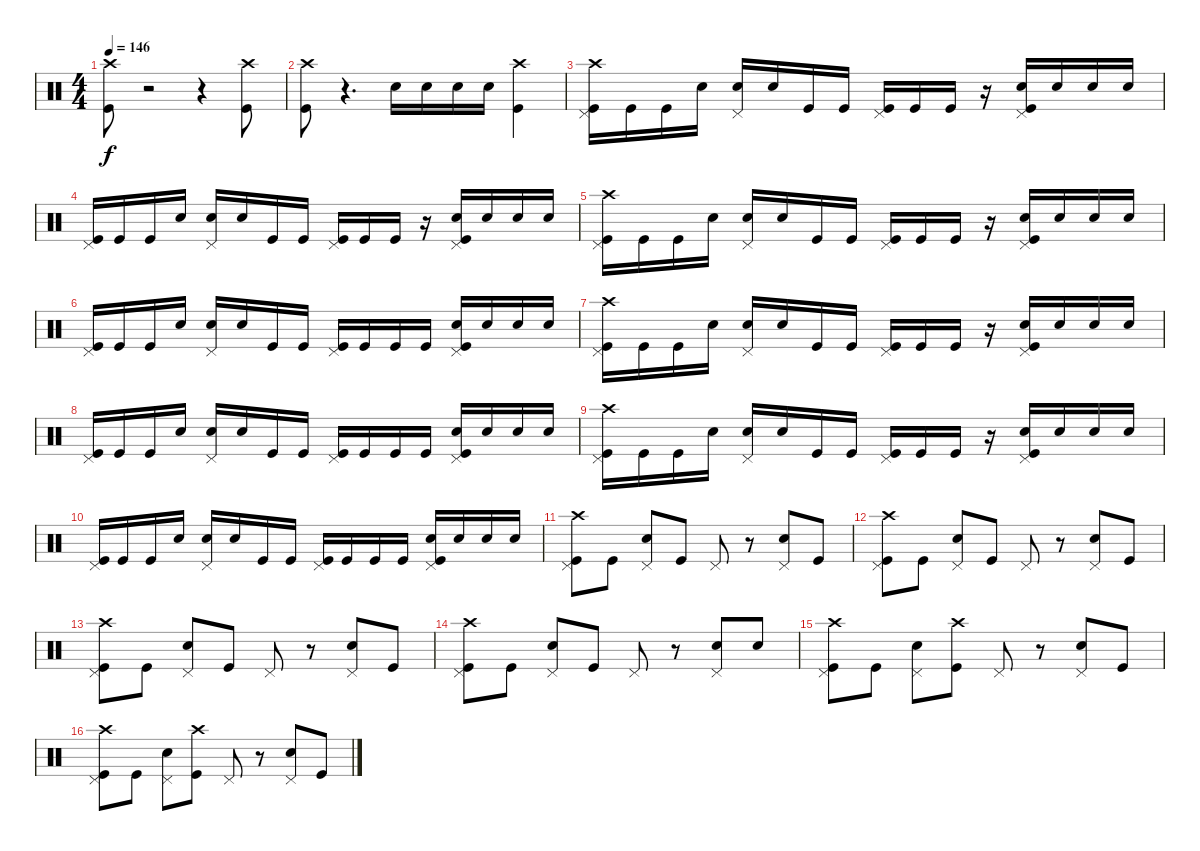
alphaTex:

\track "" {instrument percussion}
\staff {score}
\articulation defaults
\ts (4 4)
\tempo 146
\clef neutral
\ks c
("Crash high (hit)" "Kick (hit)").8{dy f} r.2 r.4 ("Crash high (hit)" "Kick (hit)").8 |
("Crash high (hit)" "Kick (hit)").8 r.4{d} "Snare (hit) 2".16 "Snare (hit) 2".16 "Snare (hit) 2".16 "Snare (hit) 2".16 ("Crash high (hit)" "Kick (hit)").4 |
("Crash high (hit)" "Pedal Hi-Hat (hit)" "Kick (hit)").16 "Kick (hit)".16 "Kick (hit)".16 "Snare (hit)"{x}.16 ("Snare (hit) 2" "Pedal Hi-Hat (hit)").16 "Snare (hit)"{x}.16 "Kick (hit)".16 "Kick (hit)".16 ("Pedal Hi-Hat (hit)" "Kick (hit)").16 "Kick (hit)".16 "Kick (hit)".16 r.16 ("Pedal Hi-Hat (hit)" "Snare (hit) 2" "Kick (hit)").16 "Snare (hit)"{x}.16 "Snare (hit)"{x}.16 "Snare (hit)"{x}.16 |
("Pedal Hi-Hat (hit)" "Kick (hit)").16 "Kick (hit)".16 "Kick (hit)".16 "Snare (hit)"{x}.16 ("Snare (hit) 2" "Pedal Hi-Hat (hit)").16 "Snare (hit)"{x}.16 "Kick (hit)".16 "Kick (hit)".16 ("Pedal Hi-Hat (hit)" "Kick (hit)").16 "Kick (hit)".16 "Kick (hit)".16 r.16 ("Pedal Hi-Hat (hit)" "Snare (hit) 2" "Kick (hit)").16 "Snare (hit)"{x}.16 "Snare (hit)"{x}.16 "Snare (hit)"{x}.16 |
("Crash high (hit)" "Pedal Hi-Hat (hit)" "Kick (hit)").16 "Kick (hit)".16 "Kick (hit)".16 "Snare (hit)"{x}.16 ("Snare (hit) 2" "Pedal Hi-Hat (hit)").16 "Snare (hit)"{x}.16 "Kick (hit)".16 "Kick (hit)".16 ("Pedal Hi-Hat (hit)" "Kick (hit)").16 "Kick (hit)".16 "Kick (hit)".16 r.16 ("Pedal Hi-Hat (hit)" "Snare (hit) 2" "Kick (hit)").16 "Snare (hit)"{x}.16 "Snare (hit)"{x}.16 "Snare (hit)"{x}.16 |
("Pedal Hi-Hat (hit)" "Kick (hit)").16 "Kick (hit)".16 "Kick (hit)".16 "Snare (hit)"{x}.16 ("Snare (hit) 2" "Pedal Hi-Hat (hit)").16 "Snare (hit)"{x}.16 "Kick (hit)".16 "Kick (hit)".16 ("Pedal Hi-Hat (hit)" "Kick (hit)").16 "Kick (hit)".16 "Kick (hit)".16 "Kick (hit)".16 ("Pedal Hi-Hat (hit)" "Snare (hit) 2" "Kick (hit)").16 "Snare (hit)"{x}.16 "Snare (hit)"{x}.16 "Snare (hit)"{x}.16 |
("Crash high (hit)" "Pedal Hi-Hat (hit)" "Kick (hit)").16 "Kick (hit)".16 "Kick (hit)".16 "Snare (hit)"{x}.16 ("Snare (hit) 2" "Pedal Hi-Hat (hit)").16 "Snare (hit)"{x}.16 "Kick (hit)".16 "Kick (hit)".16 ("Pedal Hi-Hat (hit)" "Kick (hit)").16 "Kick (hit)".16 "Kick (hit)".16 r.16 ("Pedal Hi-Hat (hit)" "Snare (hit) 2" "Kick (hit)").16 "Snare (hit)"{x}.16 "Snare (hit)"{x}.16 "Snare (hit)"{x}.16 |
("Pedal Hi-Hat (hit)" "Kick (hit)").16 "Kick (hit)".16 "Kick (hit)".16 "Snare (hit)"{x}.16 ("Snare (hit) 2" "Pedal Hi-Hat (hit)").16 "Snare (hit)"{x}.16 "Kick (hit)".16 "Kick (hit)".16 ("Pedal Hi-Hat (hit)" "Kick (hit)").16 "Kick (hit)".16 "Kick (hit)".16 "Kick (hit)".16 ("Pedal Hi-Hat (hit)" "Snare (hit) 2" "Kick (hit)").16 "Snare (hit)"{x}.16 "Snare (hit)"{x}.16 "Snare (hit)"{x}.16 |
("Crash high (hit)" "Pedal Hi-Hat (hit)" "Kick (hit)").16 "Kick (hit)".16 "Kick (hit)".16 "Snare (hit)"{x}.16 ("Snare (hit) 2" "Pedal Hi-Hat (hit)").16 "Snare (hit)"{x}.16 "Kick (hit)".16 "Kick (hit)".16 ("Pedal Hi-Hat (hit)" "Kick (hit)").16 "Kick (hit)".16 "Kick (hit)".16 r.16 ("Pedal Hi-Hat (hit)" "Snare (hit) 2" "Kick (hit)").16 "Snare (hit)"{x}.16 "Snare (hit)"{x}.16 "Snare (hit)"{x}.16 |
("Pedal Hi-Hat (hit)" "Kick (hit)").16 "Kick (hit)".16 "Kick (hit)".16 "Snare (hit)"{x}.16 ("Snare (hit) 2" "Pedal Hi-Hat (hit)").16 "Snare (hit)"{x}.16 "Kick (hit)".16 "Kick (hit)".16 ("Pedal Hi-Hat (hit)" "Kick (hit)").16 "Kick (hit)".16 "Kick (hit)".16 "Kick (hit)".16 ("Pedal Hi-Hat (hit)" "Snare (hit) 2" "Kick (hit)").16 "Snare (hit)"{x}.16 "Snare (hit)"{x}.16 "Snare (hit)"{x}.16 |
("Crash high (hit)" "Pedal Hi-Hat (hit)" "Kick (hit)").8 "Kick (hit)".8 ("Pedal Hi-Hat (hit)" "Snare (hit) 2").8 "Kick (hit)".8 "Pedal Hi-Hat (hit)".8 r.8 ("Pedal Hi-Hat (hit)" "Snare (hit) 2").8 "Kick (hit)".8 |
("Crash high (hit)" "Pedal Hi-Hat (hit)" "Kick (hit)").8 "Kick (hit)".8 ("Pedal Hi-Hat (hit)" "Snare (hit) 2").8 "Kick (hit)".8 "Pedal Hi-Hat (hit)".8 r.8 ("Pedal Hi-Hat (hit)" "Snare (hit) 2").8 "Kick (hit)".8 |
("Crash high (hit)" "Pedal Hi-Hat (hit)" "Kick (hit)").8 "Kick (hit)".8 ("Pedal Hi-Hat (hit)" "Snare (hit) 2").8 "Kick (hit)".8 "Pedal Hi-Hat (hit)".8 r.8 ("Pedal Hi-Hat (hit)" "Snare (hit) 2").8 "Kick (hit)".8 |
("Crash high (hit)" "Pedal Hi-Hat (hit)" "Kick (hit)").8 "Kick (hit)".8 ("Pedal Hi-Hat (hit)" "Snare (hit) 2").8 "Kick (hit)".8 "Pedal Hi-Hat (hit)".8 r.8 ("Pedal Hi-Hat (hit)" "Snare (hit) 2").8 "Snare (hit) 2".8 |
("Crash high (hit)" "Pedal Hi-Hat (hit)" "Kick (hit)").8 "Kick (hit)".8 ("Pedal Hi-Hat (hit)" "Snare (hit) 2").8 ("Crash high (hit)" "Kick (hit)").8 "Pedal Hi-Hat (hit)".8 r.8 ("Pedal Hi-Hat (hit)" "Snare (hit) 2").8 "Kick (hit)".8 |
("Crash high (hit)" "Pedal Hi-Hat (hit)" "Kick (hit)").8 "Kick (hit)".8 ("Pedal Hi-Hat (hit)" "Snare (hit) 2").8 ("Crash high (hit)" "Kick (hit)").8 "Pedal Hi-Hat (hit)".8 r.8 ("Pedal Hi-Hat (hit)" "Snare (hit) 2").8 "Kick (hit)".8
